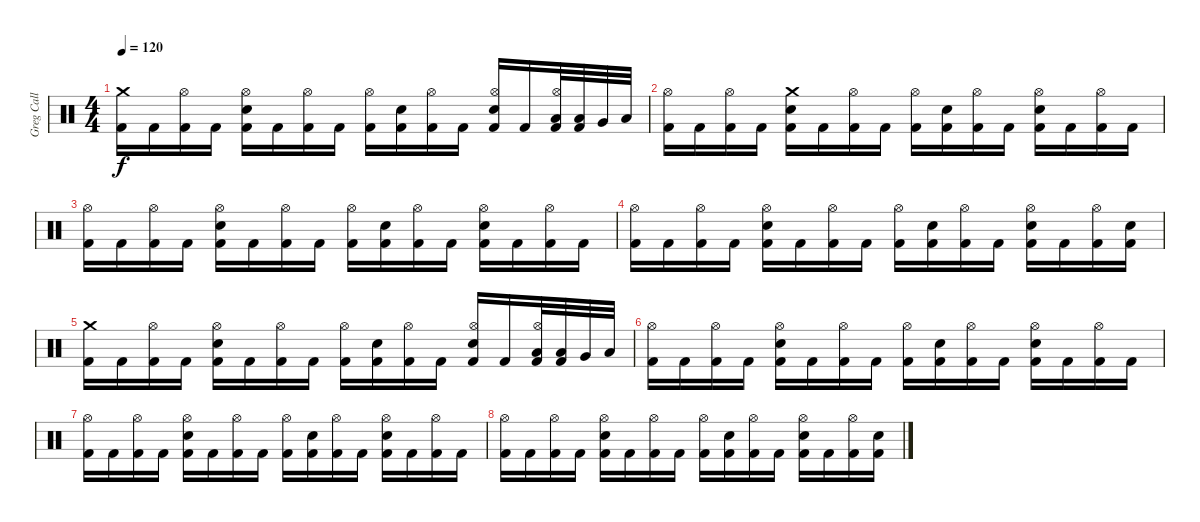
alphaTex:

\track ("Greg Call" "Greg Call") {instrument percussion}
\staff {score}
\articulation defaults
\ts (4 4)
\tempo 120
\clef neutral
\ks c
("Crash medium (hit)" "Kick (hit) 2").16{dy f} "Kick (hit) 2".16 ("Hi-Hat (open)" "Kick (hit) 2").16 "Kick (hit) 2".16 ("Hi-Hat (open)" "Snare (hit) 2" "Kick (hit) 2").16 "Kick (hit) 2".16 ("Hi-Hat (open)" "Kick (hit) 2").16 "Kick (hit) 2".16 ("Hi-Hat (open)" "Kick (hit) 2").16 ("Snare (hit) 2" "Kick (hit) 2").16 ("Hi-Hat (open)" "Kick (hit) 2").16 "Kick (hit) 2".16 ("Hi-Hat (open)" "Snare (hit) 2" "Kick (hit) 2").16 "Kick (hit) 2".16 ("Hi-Hat (open)" "Low Tom (hit)" "Kick (hit) 2").32 ("Low Tom (hit)" "Kick (hit) 2").32 "Very Low Tom (hit)".32 "Low Floor Tom (hit)".32 |
("Hi-Hat (open)" "Kick (hit) 2").16 "Kick (hit) 2".16 ("Hi-Hat (open)" "Kick (hit) 2").16 "Kick (hit) 2".16 ("Crash medium (hit)" "Snare (hit) 2" "Kick (hit) 2").16 "Kick (hit) 2".16 ("Hi-Hat (open)" "Kick (hit) 2").16 "Kick (hit) 2".16 ("Hi-Hat (open)" "Kick (hit) 2").16 ("Snare (hit) 2" "Kick (hit) 2").16 ("Hi-Hat (open)" "Kick (hit) 2").16 "Kick (hit) 2".16 ("Hi-Hat (open)" "Snare (hit) 2" "Kick (hit) 2").16 "Kick (hit) 2".16 ("Hi-Hat (open)" "Kick (hit) 2").16 "Kick (hit) 2".16 |
("Hi-Hat (open)" "Kick (hit) 2").16 "Kick (hit) 2".16 ("Hi-Hat (open)" "Kick (hit) 2").16 "Kick (hit) 2".16 ("Hi-Hat (open)" "Snare (hit) 2" "Kick (hit) 2").16 "Kick (hit) 2".16 ("Hi-Hat (open)" "Kick (hit) 2").16 "Kick (hit) 2".16 ("Hi-Hat (open)" "Kick (hit) 2").16 ("Snare (hit) 2" "Kick (hit) 2").16 ("Hi-Hat (open)" "Kick (hit) 2").16 "Kick (hit) 2".16 ("Hi-Hat (open)" "Snare (hit) 2" "Kick (hit) 2").16 "Kick (hit) 2".16 ("Hi-Hat (open)" "Kick (hit) 2").16 "Kick (hit) 2".16 |
("Hi-Hat (open)" "Kick (hit) 2").16 "Kick (hit) 2".16 ("Hi-Hat (open)" "Kick (hit) 2").16 "Kick (hit) 2".16 ("Hi-Hat (open)" "Snare (hit) 2" "Kick (hit) 2").16 "Kick (hit) 2".16 ("Hi-Hat (open)" "Kick (hit) 2").16 "Kick (hit) 2".16 ("Hi-Hat (open)" "Kick (hit) 2").16 ("Snare (hit) 2" "Kick (hit) 2").16 ("Hi-Hat (open)" "Kick (hit) 2").16 "Kick (hit) 2".16 ("Hi-Hat (open)" "Snare (hit) 2" "Kick (hit) 2").16 "Kick (hit) 2".16 ("Hi-Hat (open)" "Kick (hit) 2").16 ("Snare (hit) 2" "Kick (hit) 2").16 |
("Crash medium (hit)" "Kick (hit) 2").16{volume 0} "Kick (hit) 2".16 ("Hi-Hat (open)" "Kick (hit) 2").16 "Kick (hit) 2".16 ("Hi-Hat (open)" "Snare (hit) 2" "Kick (hit) 2").16 "Kick (hit) 2".16 ("Hi-Hat (open)" "Kick (hit) 2").16 "Kick (hit) 2".16 ("Hi-Hat (open)" "Kick (hit) 2").16 ("Snare (hit) 2" "Kick (hit) 2").16 ("Hi-Hat (open)" "Kick (hit) 2").16 "Kick (hit) 2".16 ("Hi-Hat (open)" "Snare (hit) 2" "Kick (hit) 2").16 "Kick (hit) 2".16 ("Hi-Hat (open)" "Low Tom (hit)" "Kick (hit) 2").32 ("Low Tom (hit)" "Kick (hit) 2").32 "Very Low Tom (hit)".32 "Low Floor Tom (hit)".32 |
("Hi-Hat (open)" "Kick (hit) 2").16 "Kick (hit) 2".16 ("Hi-Hat (open)" "Kick (hit) 2").16 "Kick (hit) 2".16 ("Hi-Hat (open)" "Snare (hit) 2" "Kick (hit) 2").16 "Kick (hit) 2".16 ("Hi-Hat (open)" "Kick (hit) 2").16 "Kick (hit) 2".16 ("Hi-Hat (open)" "Kick (hit) 2").16 ("Snare (hit) 2" "Kick (hit) 2").16 ("Hi-Hat (open)" "Kick (hit) 2").16 "Kick (hit) 2".16 ("Hi-Hat (open)" "Snare (hit) 2" "Kick (hit) 2").16 "Kick (hit) 2".16 ("Hi-Hat (open)" "Kick (hit) 2").16 "Kick (hit) 2".16 |
("Hi-Hat (open)" "Kick (hit) 2").16 "Kick (hit) 2".16 ("Hi-Hat (open)" "Kick (hit) 2").16 "Kick (hit) 2".16 ("Hi-Hat (open)" "Snare (hit) 2" "Kick (hit) 2").16 "Kick (hit) 2".16 ("Hi-Hat (open)" "Kick (hit) 2").16 "Kick (hit) 2".16 ("Hi-Hat (open)" "Kick (hit) 2").16 ("Snare (hit) 2" "Kick (hit) 2").16 ("Hi-Hat (open)" "Kick (hit) 2").16 "Kick (hit) 2".16 ("Hi-Hat (open)" "Snare (hit) 2" "Kick (hit) 2").16 "Kick (hit) 2".16 ("Hi-Hat (open)" "Kick (hit) 2").16 "Kick (hit) 2".16 |
("Hi-Hat (open)" "Kick (hit) 2").16 "Kick (hit) 2".16 ("Hi-Hat (open)" "Kick (hit) 2").16 "Kick (hit) 2".16 ("Hi-Hat (open)" "Snare (hit) 2" "Kick (hit) 2").16 "Kick (hit) 2".16 ("Hi-Hat (open)" "Kick (hit) 2").16 "Kick (hit) 2".16 ("Hi-Hat (open)" "Kick (hit) 2").16 ("Snare (hit) 2" "Kick (hit) 2").16 ("Hi-Hat (open)" "Kick (hit) 2").16 "Kick (hit) 2".16 ("Hi-Hat (open)" "Snare (hit) 2" "Kick (hit) 2").16 "Kick (hit) 2".16 ("Hi-Hat (open)" "Kick (hit) 2").16 ("Snare (hit) 2" "Kick (hit) 2").16
